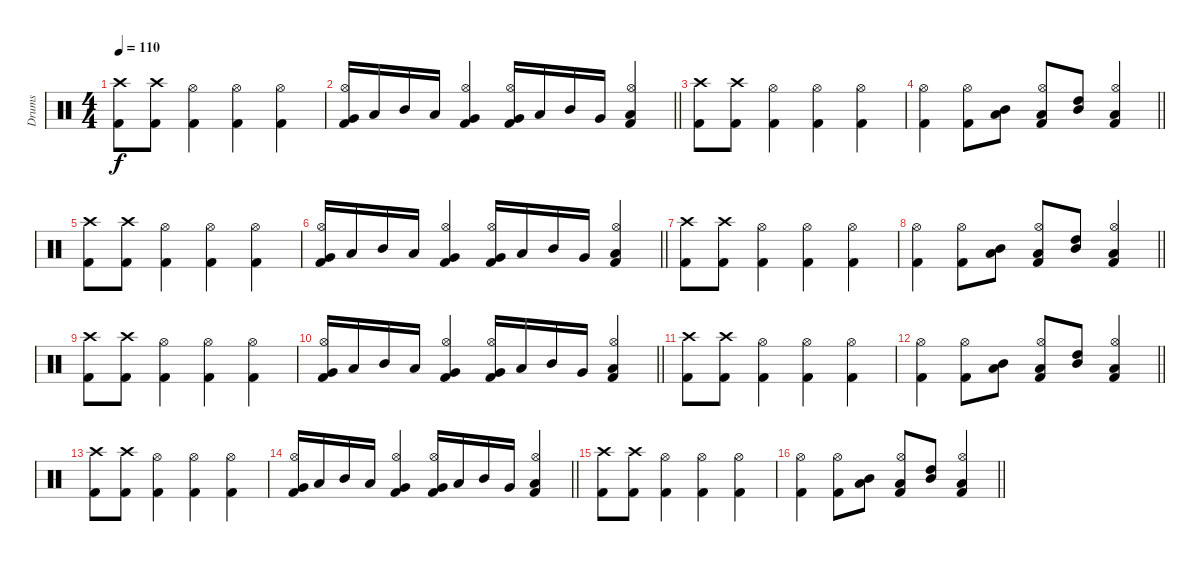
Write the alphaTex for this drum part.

\track ("Drums" "Drums") {instrument percussion}
\staff {score}
\articulation defaults
\ts (4 4)
\tempo 110
\clef neutral
\ks c
("Crash high (hit)" "Kick (hit) 2").8{dy f} ("Crash high (hit)" "Kick (hit) 2").8 ("Hi-Hat (open)" "Kick (hit) 2").4 ("Hi-Hat (open)" "Kick (hit) 2").4 ("Hi-Hat (open)" "Kick (hit) 2").4 |
\barLineRight lightlight
("Hi-Hat (open)" "Very Low Tom (hit)" "Kick (hit) 2").16 "Low Tom (hit)".16 "Mid Tom (hit)".16 "Low Tom (hit)".16 ("Hi-Hat (open)" "Very Low Tom (hit)" "Kick (hit) 2").4 ("Hi-Hat (open)" "Very Low Tom (hit)" "Kick (hit) 2").16 "Low Tom (hit)".16 "Mid Tom (hit)".16 "Very Low Tom (hit)".16 ("Hi-Hat (open)" "Low Floor Tom (hit)" "Kick (hit) 2").4 |
\section ("" "")
("Crash high (hit)" "Kick (hit) 2").8 ("Crash high (hit)" "Kick (hit) 2").8 ("Hi-Hat (open)" "Kick (hit) 2").4 ("Hi-Hat (open)" "Kick (hit) 2").4 ("Hi-Hat (open)" "Kick (hit) 2").4 |
\barLineRight lightlight
("Hi-Hat (open)" "Kick (hit) 2").4 ("Hi-Hat (open)" "Kick (hit) 2").8 ("Low Tom (hit)" "Mid Tom (hit)").8{bd 60} ("Hi-Hat (open)" "Low Tom (hit)" "Kick (hit) 2").8 ("High Tom (hit)" "Mid Tom (hit)").8{bd 60} ("Hi-Hat (open)" "Low Tom (hit)" "Kick (hit) 2").4 |
("Crash high (hit)" "Kick (hit) 2").8 ("Crash high (hit)" "Kick (hit) 2").8 ("Hi-Hat (open)" "Kick (hit) 2").4 ("Hi-Hat (open)" "Kick (hit) 2").4 ("Hi-Hat (open)" "Kick (hit) 2").4 |
\barLineRight lightlight
("Hi-Hat (open)" "Very Low Tom (hit)" "Kick (hit) 2").16 "Low Tom (hit)".16 "Mid Tom (hit)".16 "Low Tom (hit)".16 ("Hi-Hat (open)" "Very Low Tom (hit)" "Kick (hit) 2").4 ("Hi-Hat (open)" "Very Low Tom (hit)" "Kick (hit) 2").16 "Low Tom (hit)".16 "Mid Tom (hit)".16 "Very Low Tom (hit)".16 ("Hi-Hat (open)" "Low Floor Tom (hit)" "Kick (hit) 2").4 |
\section ("" "")
("Crash high (hit)" "Kick (hit) 2").8 ("Crash high (hit)" "Kick (hit) 2").8 ("Hi-Hat (open)" "Kick (hit) 2").4 ("Hi-Hat (open)" "Kick (hit) 2").4 ("Hi-Hat (open)" "Kick (hit) 2").4 |
\barLineRight lightlight
("Hi-Hat (open)" "Kick (hit) 2").4 ("Hi-Hat (open)" "Kick (hit) 2").8 ("Low Tom (hit)" "Mid Tom (hit)").8{bd 60} ("Hi-Hat (open)" "Low Tom (hit)" "Kick (hit) 2").8 ("High Tom (hit)" "Mid Tom (hit)").8{bd 60} ("Hi-Hat (open)" "Low Tom (hit)" "Kick (hit) 2").4 |
("Crash high (hit)" "Kick (hit) 2").8 ("Crash high (hit)" "Kick (hit) 2").8 ("Hi-Hat (open)" "Kick (hit) 2").4 ("Hi-Hat (open)" "Kick (hit) 2").4 ("Hi-Hat (open)" "Kick (hit) 2").4 |
\barLineRight lightlight
("Hi-Hat (open)" "Very Low Tom (hit)" "Kick (hit) 2").16 "Low Tom (hit)".16 "Mid Tom (hit)".16 "Low Tom (hit)".16 ("Hi-Hat (open)" "Very Low Tom (hit)" "Kick (hit) 2").4 ("Hi-Hat (open)" "Very Low Tom (hit)" "Kick (hit) 2").16 "Low Tom (hit)".16 "Mid Tom (hit)".16 "Very Low Tom (hit)".16 ("Hi-Hat (open)" "Low Floor Tom (hit)" "Kick (hit) 2").4 |
\section ("" "")
("Crash high (hit)" "Kick (hit) 2").8 ("Crash high (hit)" "Kick (hit) 2").8 ("Hi-Hat (open)" "Kick (hit) 2").4 ("Hi-Hat (open)" "Kick (hit) 2").4 ("Hi-Hat (open)" "Kick (hit) 2").4 |
\barLineRight lightlight
("Hi-Hat (open)" "Kick (hit) 2").4 ("Hi-Hat (open)" "Kick (hit) 2").8 ("Low Tom (hit)" "Mid Tom (hit)").8{bd 60} ("Hi-Hat (open)" "Low Tom (hit)" "Kick (hit) 2").8 ("High Tom (hit)" "Mid Tom (hit)").8{bd 60} ("Hi-Hat (open)" "Low Tom (hit)" "Kick (hit) 2").4 |
("Crash high (hit)" "Kick (hit) 2").8 ("Crash high (hit)" "Kick (hit) 2").8 ("Hi-Hat (open)" "Kick (hit) 2").4 ("Hi-Hat (open)" "Kick (hit) 2").4 ("Hi-Hat (open)" "Kick (hit) 2").4 |
\barLineRight lightlight
("Hi-Hat (open)" "Very Low Tom (hit)" "Kick (hit) 2").16 "Low Tom (hit)".16 "Mid Tom (hit)".16 "Low Tom (hit)".16 ("Hi-Hat (open)" "Very Low Tom (hit)" "Kick (hit) 2").4 ("Hi-Hat (open)" "Very Low Tom (hit)" "Kick (hit) 2").16 "Low Tom (hit)".16 "Mid Tom (hit)".16 "Very Low Tom (hit)".16 ("Hi-Hat (open)" "Low Floor Tom (hit)" "Kick (hit) 2").4 |
\section ("" "")
("Crash high (hit)" "Kick (hit) 2").8 ("Crash high (hit)" "Kick (hit) 2").8 ("Hi-Hat (open)" "Kick (hit) 2").4 ("Hi-Hat (open)" "Kick (hit) 2").4 ("Hi-Hat (open)" "Kick (hit) 2").4 |
\barLineRight lightlight
("Hi-Hat (open)" "Kick (hit) 2").4 ("Hi-Hat (open)" "Kick (hit) 2").8 ("Low Tom (hit)" "Mid Tom (hit)").8{bd 60} ("Hi-Hat (open)" "Low Tom (hit)" "Kick (hit) 2").8 ("High Tom (hit)" "Mid Tom (hit)").8{bd 60} ("Hi-Hat (open)" "Low Tom (hit)" "Kick (hit) 2").4
